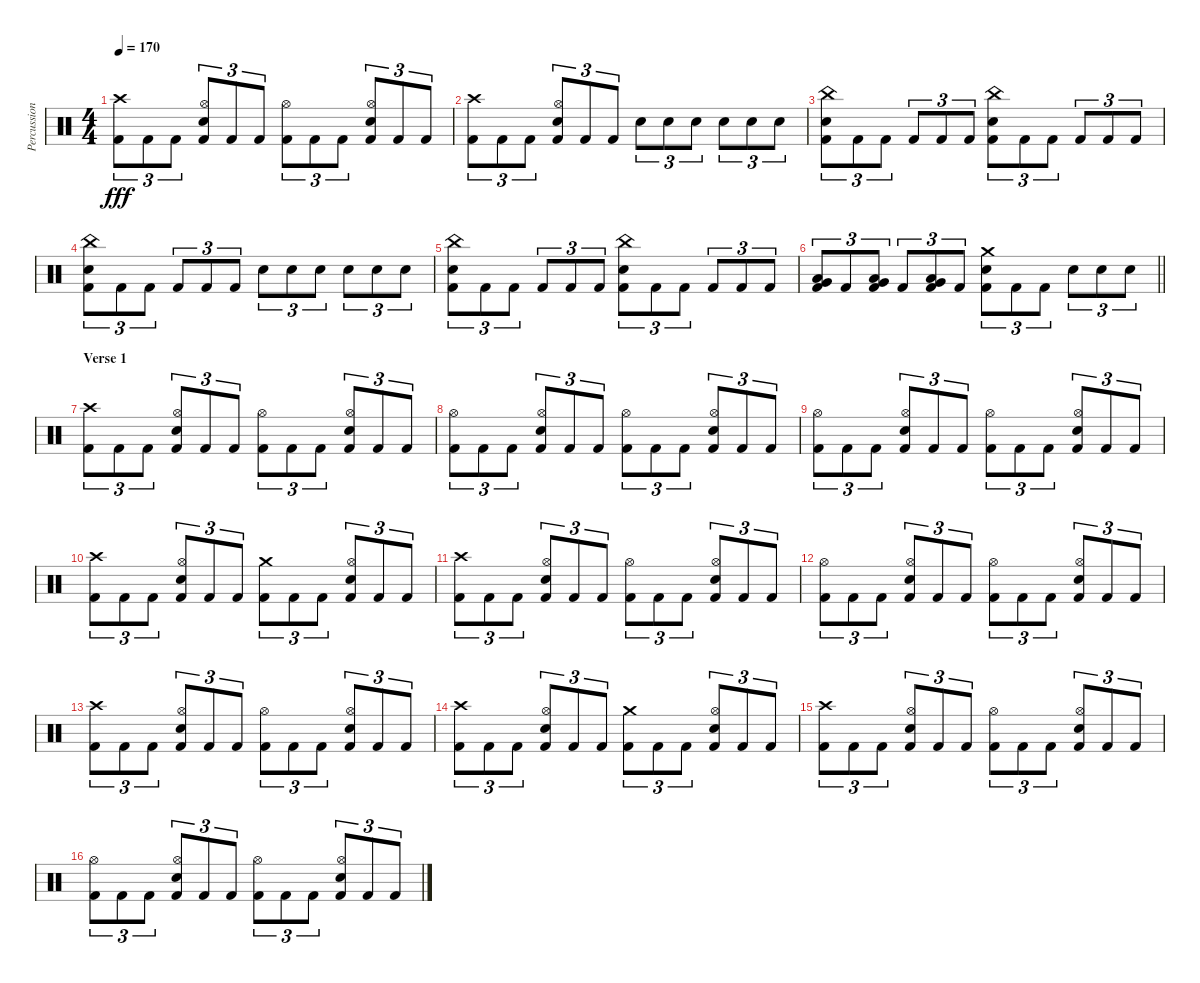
\track ("Percussion" "Percussion") {instrument percussion}
\staff {score}
\articulation defaults
\ts (4 4)
\tempo 170
\clef neutral
\ks c
("Crash high (hit)" "Kick (hit) 2").8{tu (3 2) dy fff} "Kick (hit) 2".8{tu (3 2)} "Kick (hit) 2".8{tu (3 2)} ("Hi-Hat (open)" "Snare (hit) 2" "Kick (hit) 2").8{tu (3 2)} "Kick (hit) 2".8{tu (3 2)} "Kick (hit) 2".8{tu (3 2)} ("Hi-Hat (open)" "Kick (hit) 2").8{tu (3 2)} "Kick (hit) 2".8{tu (3 2)} "Kick (hit) 2".8{tu (3 2)} ("Hi-Hat (open)" "Snare (hit) 2" "Kick (hit) 2").8{tu (3 2)} "Kick (hit) 2".8{tu (3 2)} "Kick (hit) 2".8{tu (3 2)} |
("Crash high (hit)" "Kick (hit) 2").8{tu (3 2)} "Kick (hit) 2".8{tu (3 2)} "Kick (hit) 2".8{tu (3 2)} ("Hi-Hat (open)" "Snare (hit) 2" "Kick (hit) 2").8{tu (3 2)} "Kick (hit) 2".8{tu (3 2)} "Kick (hit) 2".8{tu (3 2)} "Electric Snare (hit)".8{tu (3 2)} "Electric Snare (hit)".8{tu (3 2)} "Electric Snare (hit)".8{tu (3 2)} "Electric Snare (hit)".8{tu (3 2)} "Electric Snare (hit)".8{tu (3 2)} "Electric Snare (hit)".8{tu (3 2)} |
("China (hit)" "Electric Snare (hit)" "Kick (hit) 2").8{tu (3 2)} "Kick (hit) 2".8{tu (3 2)} "Kick (hit) 2".8{tu (3 2)} "Kick (hit) 2".8{tu (3 2)} "Kick (hit) 2".8{tu (3 2)} "Kick (hit) 2".8{tu (3 2)} ("China (hit)" "Electric Snare (hit)" "Kick (hit) 2").8{tu (3 2)} "Kick (hit) 2".8{tu (3 2)} "Kick (hit) 2".8{tu (3 2)} "Kick (hit) 2".8{tu (3 2)} "Kick (hit) 2".8{tu (3 2)} "Kick (hit) 2".8{tu (3 2)} |
("China (hit)" "Electric Snare (hit)" "Kick (hit) 2").8{tu (3 2)} "Kick (hit) 2".8{tu (3 2)} "Kick (hit) 2".8{tu (3 2)} "Kick (hit) 2".8{tu (3 2)} "Kick (hit) 2".8{tu (3 2)} "Kick (hit) 2".8{tu (3 2)} "Electric Snare (hit)".8{tu (3 2)} "Electric Snare (hit)".8{tu (3 2)} "Electric Snare (hit)".8{tu (3 2)} "Electric Snare (hit)".8{tu (3 2)} "Electric Snare (hit)".8{tu (3 2)} "Electric Snare (hit)".8{tu (3 2)} |
("China (hit)" "Electric Snare (hit)" "Kick (hit) 2").8{tu (3 2)} "Kick (hit) 2".8{tu (3 2)} "Kick (hit) 2".8{tu (3 2)} "Kick (hit) 2".8{tu (3 2)} "Kick (hit) 2".8{tu (3 2)} "Kick (hit) 2".8{tu (3 2)} ("China (hit)" "Electric Snare (hit)" "Kick (hit) 2").8{tu (3 2)} "Kick (hit) 2".8{tu (3 2)} "Kick (hit) 2".8{tu (3 2)} "Kick (hit) 2".8{tu (3 2)} "Kick (hit) 2".8{tu (3 2)} "Kick (hit) 2".8{tu (3 2)} |
\barLineRight lightlight
("Low Floor Tom (hit)" "Very Low Tom (hit)" "Kick (hit) 2").8{tu (3 2)} "Kick (hit) 2".8{tu (3 2)} ("Low Floor Tom (hit)" "Very Low Tom (hit)" "Kick (hit) 2").8{tu (3 2)} "Kick (hit) 2".8{tu (3 2)} ("Low Floor Tom (hit)" "Very Low Tom (hit)" "Kick (hit) 2").8{tu (3 2)} "Kick (hit) 2".8{tu (3 2)} ("Crash medium (hit)" "Electric Snare (hit)" "Kick (hit) 2").8{tu (3 2)} "Kick (hit) 2".8{tu (3 2)} "Kick (hit) 2".8{tu (3 2)} "Electric Snare (hit)".8{tu (3 2)} "Electric Snare (hit)".8{tu (3 2)} "Electric Snare (hit)".8{tu (3 2)} |
\section ("" "Verse 1")
("Crash high (hit)" "Kick (hit) 2").8{tu (3 2)} "Kick (hit) 2".8{tu (3 2)} "Kick (hit) 2".8{tu (3 2)} ("Hi-Hat (open)" "Snare (hit) 2" "Kick (hit) 2").8{tu (3 2)} "Kick (hit) 2".8{tu (3 2)} "Kick (hit) 2".8{tu (3 2)} ("Hi-Hat (open)" "Kick (hit) 2").8{tu (3 2)} "Kick (hit) 2".8{tu (3 2)} "Kick (hit) 2".8{tu (3 2)} ("Hi-Hat (open)" "Snare (hit) 2" "Kick (hit) 2").8{tu (3 2)} "Kick (hit) 2".8{tu (3 2)} "Kick (hit) 2".8{tu (3 2)} |
("Hi-Hat (open)" "Kick (hit) 2").8{tu (3 2)} "Kick (hit) 2".8{tu (3 2)} "Kick (hit) 2".8{tu (3 2)} ("Hi-Hat (open)" "Snare (hit) 2" "Kick (hit) 2").8{tu (3 2)} "Kick (hit) 2".8{tu (3 2)} "Kick (hit) 2".8{tu (3 2)} ("Hi-Hat (open)" "Kick (hit) 2").8{tu (3 2)} "Kick (hit) 2".8{tu (3 2)} "Kick (hit) 2".8{tu (3 2)} ("Hi-Hat (open)" "Snare (hit) 2" "Kick (hit) 2").8{tu (3 2)} "Kick (hit) 2".8{tu (3 2)} "Kick (hit) 2".8{tu (3 2)} |
("Hi-Hat (open)" "Kick (hit) 2").8{tu (3 2)} "Kick (hit) 2".8{tu (3 2)} "Kick (hit) 2".8{tu (3 2)} ("Hi-Hat (open)" "Snare (hit) 2" "Kick (hit) 2").8{tu (3 2)} "Kick (hit) 2".8{tu (3 2)} "Kick (hit) 2".8{tu (3 2)} ("Hi-Hat (open)" "Kick (hit) 2").8{tu (3 2)} "Kick (hit) 2".8{tu (3 2)} "Kick (hit) 2".8{tu (3 2)} ("Hi-Hat (open)" "Snare (hit) 2" "Kick (hit) 2").8{tu (3 2)} "Kick (hit) 2".8{tu (3 2)} "Kick (hit) 2".8{tu (3 2)} |
("Crash high (hit)" "Kick (hit) 2").8{tu (3 2)} "Kick (hit) 2".8{tu (3 2)} "Kick (hit) 2".8{tu (3 2)} ("Hi-Hat (open)" "Snare (hit) 2" "Kick (hit) 2").8{tu (3 2)} "Kick (hit) 2".8{tu (3 2)} "Kick (hit) 2".8{tu (3 2)} ("Crash medium (hit)" "Kick (hit) 2").8{tu (3 2)} "Kick (hit) 2".8{tu (3 2)} "Kick (hit) 2".8{tu (3 2)} ("Hi-Hat (open)" "Snare (hit) 2" "Kick (hit) 2").8{tu (3 2)} "Kick (hit) 2".8{tu (3 2)} "Kick (hit) 2".8{tu (3 2)} |
("Crash high (hit)" "Kick (hit) 2").8{tu (3 2)} "Kick (hit) 2".8{tu (3 2)} "Kick (hit) 2".8{tu (3 2)} ("Hi-Hat (open)" "Snare (hit) 2" "Kick (hit) 2").8{tu (3 2)} "Kick (hit) 2".8{tu (3 2)} "Kick (hit) 2".8{tu (3 2)} ("Hi-Hat (open)" "Kick (hit) 2").8{tu (3 2)} "Kick (hit) 2".8{tu (3 2)} "Kick (hit) 2".8{tu (3 2)} ("Hi-Hat (open)" "Snare (hit) 2" "Kick (hit) 2").8{tu (3 2)} "Kick (hit) 2".8{tu (3 2)} "Kick (hit) 2".8{tu (3 2)} |
("Hi-Hat (open)" "Kick (hit) 2").8{tu (3 2)} "Kick (hit) 2".8{tu (3 2)} "Kick (hit) 2".8{tu (3 2)} ("Hi-Hat (open)" "Snare (hit) 2" "Kick (hit) 2").8{tu (3 2)} "Kick (hit) 2".8{tu (3 2)} "Kick (hit) 2".8{tu (3 2)} ("Hi-Hat (open)" "Kick (hit) 2").8{tu (3 2)} "Kick (hit) 2".8{tu (3 2)} "Kick (hit) 2".8{tu (3 2)} ("Hi-Hat (open)" "Snare (hit) 2" "Kick (hit) 2").8{tu (3 2)} "Kick (hit) 2".8{tu (3 2)} "Kick (hit) 2".8{tu (3 2)} |
("Crash high (hit)" "Kick (hit) 2").8{tu (3 2)} "Kick (hit) 2".8{tu (3 2)} "Kick (hit) 2".8{tu (3 2)} ("Hi-Hat (open)" "Snare (hit) 2" "Kick (hit) 2").8{tu (3 2)} "Kick (hit) 2".8{tu (3 2)} "Kick (hit) 2".8{tu (3 2)} ("Hi-Hat (open)" "Kick (hit) 2").8{tu (3 2)} "Kick (hit) 2".8{tu (3 2)} "Kick (hit) 2".8{tu (3 2)} ("Hi-Hat (open)" "Snare (hit) 2" "Kick (hit) 2").8{tu (3 2)} "Kick (hit) 2".8{tu (3 2)} "Kick (hit) 2".8{tu (3 2)} |
("Crash high (hit)" "Kick (hit) 2").8{tu (3 2)} "Kick (hit) 2".8{tu (3 2)} "Kick (hit) 2".8{tu (3 2)} ("Hi-Hat (open)" "Snare (hit) 2" "Kick (hit) 2").8{tu (3 2)} "Kick (hit) 2".8{tu (3 2)} "Kick (hit) 2".8{tu (3 2)} ("Crash medium (hit)" "Kick (hit) 2").8{tu (3 2)} "Kick (hit) 2".8{tu (3 2)} "Kick (hit) 2".8{tu (3 2)} ("Hi-Hat (open)" "Snare (hit) 2" "Kick (hit) 2").8{tu (3 2)} "Kick (hit) 2".8{tu (3 2)} "Kick (hit) 2".8{tu (3 2)} |
("Crash high (hit)" "Kick (hit) 2").8{tu (3 2)} "Kick (hit) 2".8{tu (3 2)} "Kick (hit) 2".8{tu (3 2)} ("Hi-Hat (open)" "Snare (hit) 2" "Kick (hit) 2").8{tu (3 2)} "Kick (hit) 2".8{tu (3 2)} "Kick (hit) 2".8{tu (3 2)} ("Hi-Hat (open)" "Kick (hit) 2").8{tu (3 2)} "Kick (hit) 2".8{tu (3 2)} "Kick (hit) 2".8{tu (3 2)} ("Hi-Hat (open)" "Snare (hit) 2" "Kick (hit) 2").8{tu (3 2)} "Kick (hit) 2".8{tu (3 2)} "Kick (hit) 2".8{tu (3 2)} |
("Hi-Hat (open)" "Kick (hit) 2").8{tu (3 2)} "Kick (hit) 2".8{tu (3 2)} "Kick (hit) 2".8{tu (3 2)} ("Hi-Hat (open)" "Snare (hit) 2" "Kick (hit) 2").8{tu (3 2)} "Kick (hit) 2".8{tu (3 2)} "Kick (hit) 2".8{tu (3 2)} ("Hi-Hat (open)" "Kick (hit) 2").8{tu (3 2)} "Kick (hit) 2".8{tu (3 2)} "Kick (hit) 2".8{tu (3 2)} ("Hi-Hat (open)" "Snare (hit) 2" "Kick (hit) 2").8{tu (3 2)} "Kick (hit) 2".8{tu (3 2)} "Kick (hit) 2".8{tu (3 2)}
